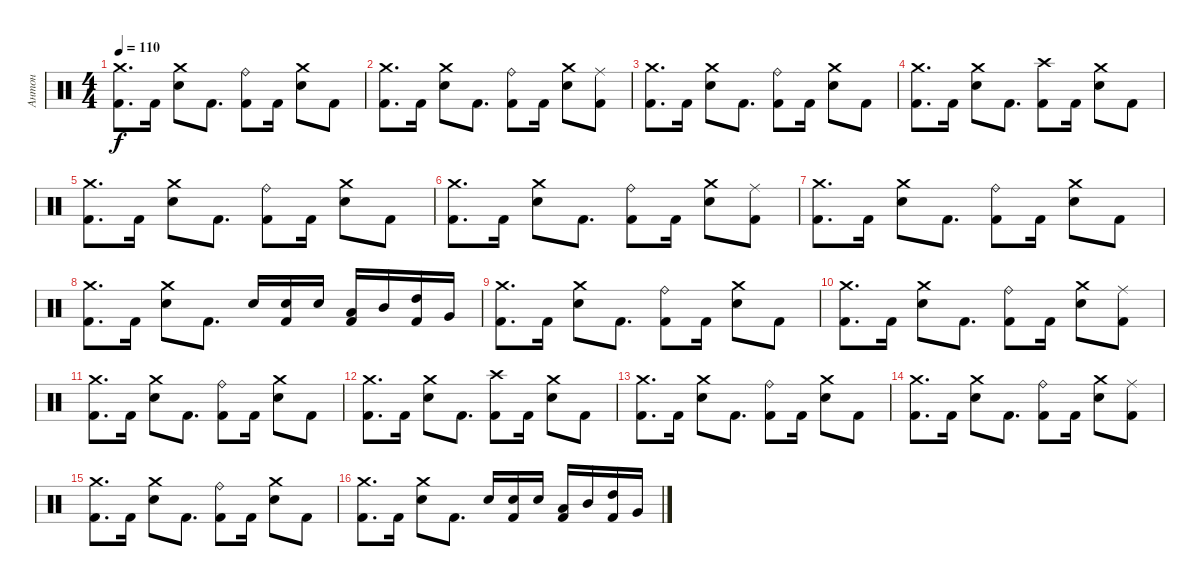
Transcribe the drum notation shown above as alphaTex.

\track ("Антон" "Антон") {instrument percussion}
\staff {score}
\articulation defaults
\ts (4 4)
\tempo 110
\clef neutral
\ks c
("Crash medium (hit)" "Kick (hit) 2").8{d dy f} "Kick (hit) 2".16 ("Crash medium (hit)" "Electric Snare (hit)").8 "Kick (hit) 2".8{d} ("Ride (bell)" "Kick (hit) 2").8 "Kick (hit) 2".16 ("Crash medium (hit)" "Electric Snare (hit)").8 "Kick (hit) 2".8 |
("Crash medium (hit)" "Kick (hit) 2").8{d} "Kick (hit) 2".16 ("Crash medium (hit)" "Electric Snare (hit)").8 "Kick (hit) 2".8{d} ("Ride (bell)" "Kick (hit) 2").8 "Kick (hit) 2".16 ("Crash medium (hit)" "Electric Snare (hit)").8 ("Ride (middle)" "Kick (hit) 2").8 |
("Crash medium (hit)" "Kick (hit) 2").8{d} "Kick (hit) 2".16 ("Crash medium (hit)" "Electric Snare (hit)").8 "Kick (hit) 2".8{d} ("Ride (bell)" "Kick (hit) 2").8 "Kick (hit) 2".16 ("Crash medium (hit)" "Electric Snare (hit)").8 "Kick (hit) 2".8 |
("Crash medium (hit)" "Kick (hit) 2").8{d} "Kick (hit) 2".16 ("Crash medium (hit)" "Electric Snare (hit)").8 "Kick (hit) 2".8{d} ("Crash high (hit)" "Kick (hit) 2").8 "Kick (hit) 2".16 ("Crash medium (hit)" "Electric Snare (hit)").8 "Kick (hit) 2".8 |
("Crash medium (hit)" "Kick (hit) 2").8{d} "Kick (hit) 2".16 ("Crash medium (hit)" "Electric Snare (hit)").8 "Kick (hit) 2".8{d} ("Ride (bell)" "Kick (hit) 2").8 "Kick (hit) 2".16 ("Crash medium (hit)" "Electric Snare (hit)").8 "Kick (hit) 2".8 |
("Crash medium (hit)" "Kick (hit) 2").8{d} "Kick (hit) 2".16 ("Crash medium (hit)" "Electric Snare (hit)").8 "Kick (hit) 2".8{d} ("Ride (bell)" "Kick (hit) 2").8 "Kick (hit) 2".16 ("Crash medium (hit)" "Electric Snare (hit)").8 ("Ride (middle)" "Kick (hit) 2").8 |
("Crash medium (hit)" "Kick (hit) 2").8{d} "Kick (hit) 2".16 ("Crash medium (hit)" "Electric Snare (hit)").8 "Kick (hit) 2".8{d} ("Ride (bell)" "Kick (hit) 2").8 "Kick (hit) 2".16 ("Crash medium (hit)" "Electric Snare (hit)").8 "Kick (hit) 2".8 |
("Crash medium (hit)" "Kick (hit) 2").8{d} "Kick (hit) 2".16 ("Crash medium (hit)" "Electric Snare (hit)").8 "Kick (hit) 2".8{d} "Electric Snare (hit)".16 ("Electric Snare (hit)" "Kick (hit) 2").16 "Electric Snare (hit)".16 ("Low Tom (hit)" "Kick (hit) 2").16 "Mid Tom (hit)".16 ("High Tom (hit)" "Kick (hit) 2").16 "Very Low Tom (hit)".16 |
("Crash medium (hit)" "Kick (hit) 2").8{d} "Kick (hit) 2".16 ("Crash medium (hit)" "Electric Snare (hit)").8 "Kick (hit) 2".8{d} ("Ride (bell)" "Kick (hit) 2").8 "Kick (hit) 2".16 ("Crash medium (hit)" "Electric Snare (hit)").8 "Kick (hit) 2".8 |
("Crash medium (hit)" "Kick (hit) 2").8{d} "Kick (hit) 2".16 ("Crash medium (hit)" "Electric Snare (hit)").8 "Kick (hit) 2".8{d} ("Ride (bell)" "Kick (hit) 2").8 "Kick (hit) 2".16 ("Crash medium (hit)" "Electric Snare (hit)").8 ("Ride (middle)" "Kick (hit) 2").8 |
("Crash medium (hit)" "Kick (hit) 2").8{d} "Kick (hit) 2".16 ("Crash medium (hit)" "Electric Snare (hit)").8 "Kick (hit) 2".8{d} ("Ride (bell)" "Kick (hit) 2").8 "Kick (hit) 2".16 ("Crash medium (hit)" "Electric Snare (hit)").8 "Kick (hit) 2".8 |
("Crash medium (hit)" "Kick (hit) 2").8{d} "Kick (hit) 2".16 ("Crash medium (hit)" "Electric Snare (hit)").8 "Kick (hit) 2".8{d} ("Crash high (hit)" "Kick (hit) 2").8 "Kick (hit) 2".16 ("Crash medium (hit)" "Electric Snare (hit)").8 "Kick (hit) 2".8 |
("Crash medium (hit)" "Kick (hit) 2").8{d} "Kick (hit) 2".16 ("Crash medium (hit)" "Electric Snare (hit)").8 "Kick (hit) 2".8{d} ("Ride (bell)" "Kick (hit) 2").8 "Kick (hit) 2".16 ("Crash medium (hit)" "Electric Snare (hit)").8 "Kick (hit) 2".8 |
("Crash medium (hit)" "Kick (hit) 2").8{d} "Kick (hit) 2".16 ("Crash medium (hit)" "Electric Snare (hit)").8 "Kick (hit) 2".8{d} ("Ride (bell)" "Kick (hit) 2").8 "Kick (hit) 2".16 ("Crash medium (hit)" "Electric Snare (hit)").8 ("Ride (middle)" "Kick (hit) 2").8 |
("Crash medium (hit)" "Kick (hit) 2").8{d} "Kick (hit) 2".16 ("Crash medium (hit)" "Electric Snare (hit)").8 "Kick (hit) 2".8{d} ("Ride (bell)" "Kick (hit) 2").8 "Kick (hit) 2".16 ("Crash medium (hit)" "Electric Snare (hit)").8 "Kick (hit) 2".8 |
("Crash medium (hit)" "Kick (hit) 2").8{d} "Kick (hit) 2".16 ("Crash medium (hit)" "Electric Snare (hit)").8 "Kick (hit) 2".8{d} "Electric Snare (hit)".16 ("Electric Snare (hit)" "Kick (hit) 2").16 "Electric Snare (hit)".16 ("Low Tom (hit)" "Kick (hit) 2").16 "Mid Tom (hit)".16 ("High Tom (hit)" "Kick (hit) 2").16 "Very Low Tom (hit)".16
